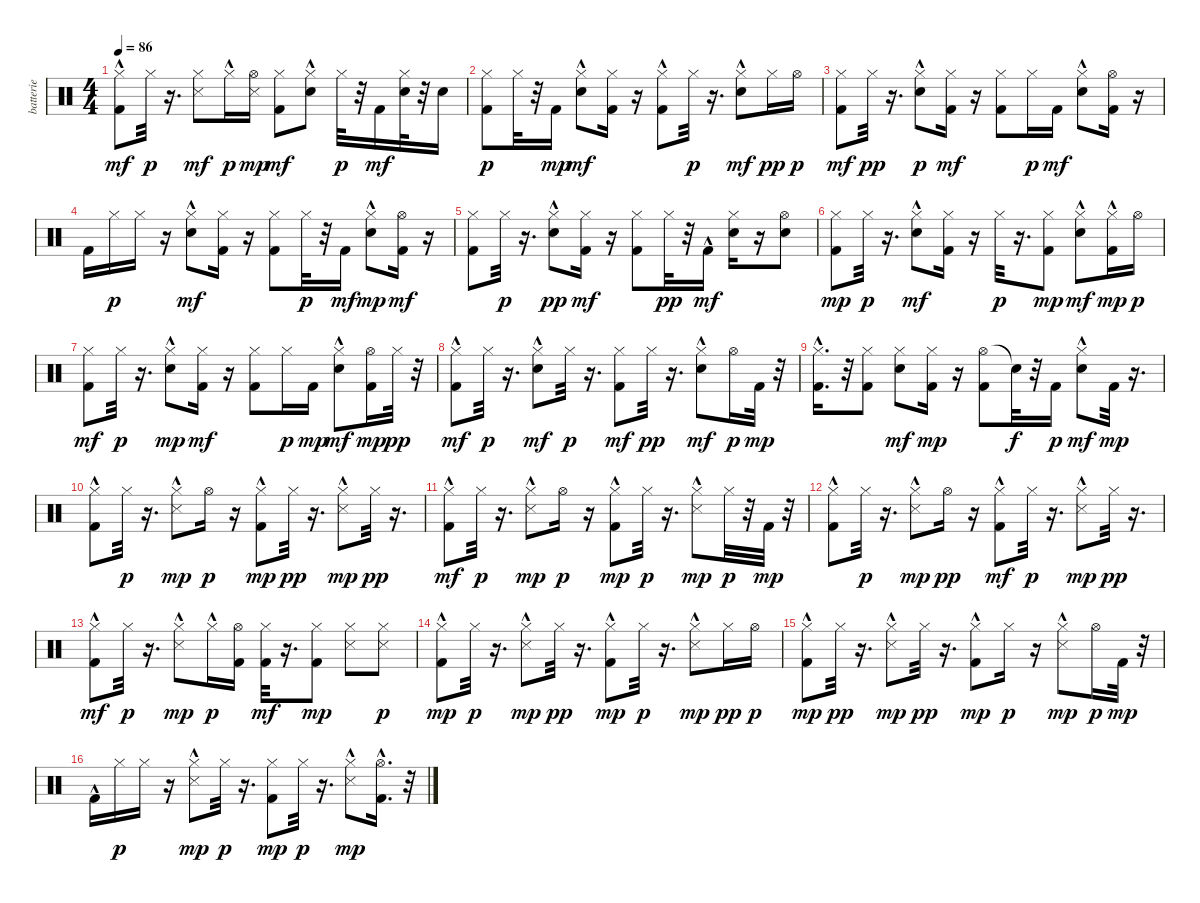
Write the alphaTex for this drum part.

\track ("batterie" "batterie") {instrument percussion}
\staff {score}
\articulation defaults
\ts (4 4)
\tempo 86
\clef neutral
\ks c
("Hi-Hat (closed)" "Kick (hit) 2"{hac}).8{dy mf} "Hi-Hat (closed)".32{dy p} r.16{d} ("Hi-Hat (closed)" "Snare (side stick) 3").8{dy mf} "Hi-Hat (closed)"{hac}.16{dy p} ("Hi-Hat (open)" "Snare (side stick) 3").16{dy mp} ("Hi-Hat (closed)" "Kick (hit) 2").8{dy mf} ("Hi-Hat (closed)" "Snare (hit) 2"{hac}).8 "Hi-Hat (closed)".32{dy p} r.32 "Kick (hit) 2".16{dy mf} ("Hi-Hat (closed)" "Snare (hit) 2").32 r.32 "Snare (hit) 2".16 |
("Hi-Hat (closed)" "Kick (hit) 2").8{dy p} "Hi-Hat (closed)".32 r.32 "Kick (hit) 2".16{dy mp} ("Hi-Hat (closed)" "Snare (hit) 2"{hac}).8{dy mf} ("Hi-Hat (closed)" "Kick (hit) 2").16 r.16 ("Hi-Hat (closed)" "Kick (hit) 2"{hac}).8 "Hi-Hat (closed)".32{dy p} r.16{d} ("Hi-Hat (closed)" "Snare (hit) 2"{hac}).8{dy mf} "Hi-Hat (closed)".16{dy pp} "Hi-Hat (open)".16{dy p} |
("Hi-Hat (closed)" "Kick (hit) 2").8{dy mf} "Hi-Hat (closed)".32{dy pp} r.16{d} ("Hi-Hat (closed)" "Snare (hit) 2"{hac}).8{dy p} ("Hi-Hat (closed)" "Kick (hit) 2").16{dy mf} r.16 ("Hi-Hat (closed)" "Kick (hit) 2").8 "Hi-Hat (closed)".16{dy p} "Kick (hit) 2".16{dy mf} ("Hi-Hat (closed)" "Snare (hit) 2"{hac}).8 ("Hi-Hat (open)" "Kick (hit) 2").16 r.16 |
"Kick (hit) 2".16 "Hi-Hat (closed)".16{dy p} "Hi-Hat (closed)".16 r.16 ("Hi-Hat (closed)" "Snare (hit) 2"{hac}).8{dy mf} ("Hi-Hat (closed)" "Kick (hit) 2").16 r.16 ("Hi-Hat (closed)" "Kick (hit) 2").8 "Hi-Hat (closed)".32{dy p} r.32 "Kick (hit) 2".16{dy mf} ("Hi-Hat (closed)" "Snare (hit) 2"{hac}).8{dy mp} ("Hi-Hat (open)" "Kick (hit) 2").16{dy mf} r.16 |
("Hi-Hat (closed)" "Kick (hit) 2").8 "Hi-Hat (closed)".32{dy p} r.16{d} ("Hi-Hat (closed)" "Snare (hit) 2"{hac}).8{dy pp} ("Hi-Hat (closed)" "Kick (hit) 2").16{dy mf} r.16 ("Hi-Hat (closed)" "Kick (hit) 2").8 "Hi-Hat (closed)".32{dy pp} r.32 "Kick (hit) 2"{hac}.16{dy mf} ("Hi-Hat (closed)" "Snare (hit) 2").16 r.16 ("Hi-Hat (open)" "Snare (hit) 2").8 |
("Hi-Hat (closed)" "Kick (hit) 2").8{dy mp} "Hi-Hat (closed)".32{dy p} r.16{d} ("Hi-Hat (closed)" "Snare (hit) 2"{hac}).8{dy mf} ("Hi-Hat (closed)" "Kick (hit) 2").16 r.16 "Hi-Hat (closed)".32{dy p} r.16{d} ("Hi-Hat (closed)" "Kick (hit) 2").8{dy mp} ("Hi-Hat (closed)" "Snare (hit) 2"{hac}).8{dy mf} ("Hi-Hat (closed)"{hac} "Kick (hit) 2").16{dy mp} "Hi-Hat (open)".16{dy p} |
("Hi-Hat (closed)" "Kick (hit) 2").8{dy mf} "Hi-Hat (closed)".32{dy p} r.16{d} ("Hi-Hat (closed)" "Snare (hit) 2"{hac}).8{dy mp} ("Hi-Hat (closed)" "Kick (hit) 2").16{dy mf} r.16 ("Hi-Hat (closed)" "Kick (hit) 2").8 "Hi-Hat (closed)".16{dy p} "Kick (hit) 2".16{dy mp} ("Hi-Hat (closed)" "Snare (hit) 2"{hac}).8{dy mf} ("Hi-Hat (open)" "Kick (hit) 2").16{dy mp} "Hi-Hat (closed)".32{dy pp} r.32 |
("Hi-Hat (closed)" "Kick (hit) 2"{hac}).8{dy mf} "Hi-Hat (closed)".32{dy p} r.16{d} ("Hi-Hat (closed)" "Snare (hit) 2"{hac}).8{dy mf} "Hi-Hat (closed)".32{dy p} r.16{d} ("Hi-Hat (closed)" "Kick (hit) 2").8{dy mf} "Hi-Hat (closed)".32{dy pp} r.16{d} ("Hi-Hat (closed)" "Snare (hit) 2"{hac}).8{dy mf} "Hi-Hat (open)".16{dy p} "Kick (hit) 2".32{dy mp} r.32 |
("Hi-Hat (closed)" "Kick (hit) 2"{hac}).16{d} r.32 ("Hi-Hat (closed)" "Kick (hit) 2").8 ("Hi-Hat (closed)" "Snare (hit) 2").8{dy mf} ("Hi-Hat (closed)" "Kick (hit) 2").16{dy mp} r.16 ("Hi-Hat (open)" "Kick (hit) 2").8 "Snare (hit)"{t}.32{dy f} r.32 "Kick (hit) 2".16{dy p} ("Hi-Hat (closed)" "Snare (hit) 2"{hac}).8{dy mf} "Kick (hit) 2".32{dy mp} r.16{d} |
("Hi-Hat (closed)" "Kick (hit) 2"{hac}).8 "Hi-Hat (closed)".32{dy p} r.16{d} ("Hi-Hat (closed)" "Snare (side stick) 3"{hac}).8{dy mp} "Hi-Hat (open)".16{dy p} r.16 ("Hi-Hat (closed)" "Kick (hit) 2"{hac}).8{dy mp} "Hi-Hat (closed)".32{dy pp} r.16{d} ("Hi-Hat (closed)" "Snare (side stick) 3"{hac}).8{dy mp} "Hi-Hat (closed)".32{dy pp} r.16{d} |
("Hi-Hat (closed)" "Kick (hit) 2"{hac}).8{dy mf} "Hi-Hat (closed)".32{dy p} r.16{d} ("Hi-Hat (closed)" "Snare (side stick) 3"{hac}).8{dy mp} "Hi-Hat (open)".16{dy p} r.16 ("Hi-Hat (closed)" "Kick (hit) 2"{hac}).8{dy mp} "Hi-Hat (closed)".32{dy p} r.16{d} ("Hi-Hat (closed)" "Snare (side stick) 3"{hac}).8{dy mp} "Hi-Hat (closed)".32{dy p} r.32 "Kick (hit) 2".32{dy mp} r.32 |
("Hi-Hat (closed)" "Kick (hit) 2"{hac}).8 "Hi-Hat (closed)".32{dy p} r.16{d} ("Hi-Hat (closed)" "Snare (side stick) 3"{hac}).8{dy mp} "Hi-Hat (open)".16{dy pp} r.16 ("Hi-Hat (closed)" "Kick (hit) 2"{hac}).8{dy mf} "Hi-Hat (closed)".32{dy p} r.16{d} ("Hi-Hat (closed)" "Snare (side stick) 3"{hac}).8{dy mp} "Hi-Hat (closed)".32{dy pp} r.16{d} |
("Hi-Hat (closed)" "Kick (hit) 2"{hac}).8{dy mf} "Hi-Hat (closed)".32{dy p} r.16{d} ("Hi-Hat (closed)" "Snare (side stick) 3"{hac}).8{dy mp} "Hi-Hat (closed)"{hac}.16{dy p} ("Hi-Hat (open)" "Kick (hit) 2").16 ("Hi-Hat (closed)" "Kick (hit) 2").32{dy mf} r.16{d} ("Hi-Hat (closed)" "Kick (hit) 2").8{dy mp} ("Hi-Hat (closed)" "Snare (side stick) 3").8 ("Hi-Hat (closed)" "Snare (side stick) 3").8{dy p} |
("Hi-Hat (closed)" "Kick (hit) 2"{hac}).8{dy mp} "Hi-Hat (closed)".32{dy p} r.16{d} ("Hi-Hat (closed)" "Snare (side stick) 3"{hac}).8{dy mp} "Hi-Hat (closed)".32{dy pp} r.16{d} ("Hi-Hat (closed)" "Kick (hit) 2"{hac}).8{dy mp} "Hi-Hat (closed)".32{dy p} r.16{d} ("Hi-Hat (closed)" "Snare (side stick) 3"{hac}).8{dy mp} "Hi-Hat (closed)".16{dy pp} "Hi-Hat (open)".16{dy p} |
("Hi-Hat (closed)" "Kick (hit) 2"{hac}).8{dy mp} "Hi-Hat (closed)".32{dy pp} r.16{d} ("Hi-Hat (closed)" "Snare (side stick) 3"{hac}).8{dy mp} "Hi-Hat (closed)".32{dy pp} r.16{d} ("Hi-Hat (closed)" "Kick (hit) 2"{hac}).8{dy mp} "Hi-Hat (closed)".16{dy p} r.16 ("Hi-Hat (closed)" "Snare (side stick) 3"{hac}).8{dy mp} "Hi-Hat (open)".16{dy p} "Kick (hit) 2".32{dy mp} r.32 |
"Kick (hit) 2"{hac}.16 "Hi-Hat (closed)".16{dy p} "Hi-Hat (closed)".16 r.16 ("Hi-Hat (closed)" "Snare (side stick) 3"{hac}).8{dy mp} "Hi-Hat (closed)".32{dy p} r.16{d} ("Hi-Hat (closed)" "Kick (hit) 2").8{dy mp} "Hi-Hat (closed)".32{dy p} r.16{d} ("Hi-Hat (closed)" "Snare (side stick) 3"{hac}).8{dy mp} ("Hi-Hat (open)" "Kick (hit) 2"{hac}).16{d} r.32
